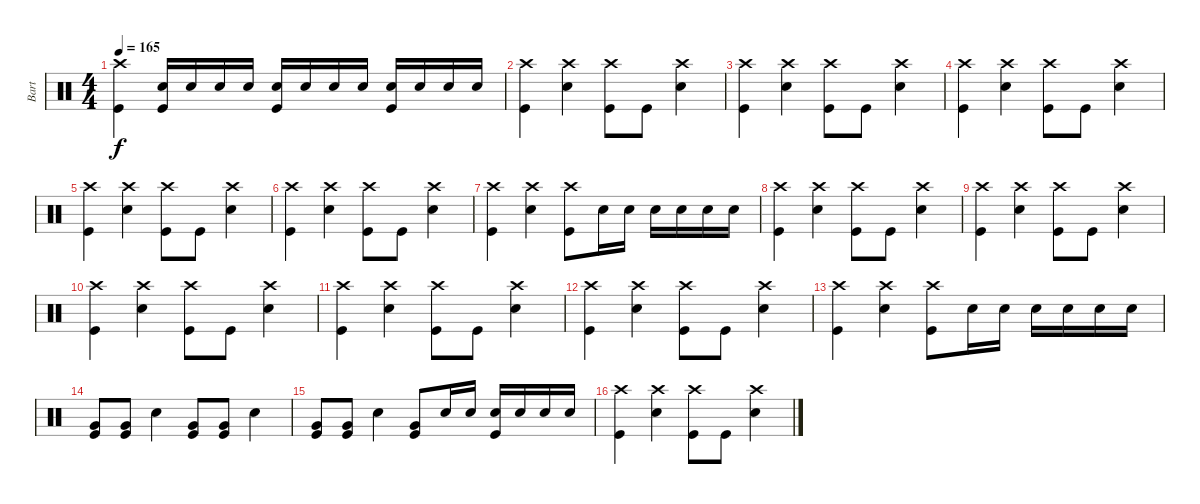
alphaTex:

\track ("Bart" "Bart") {instrument percussion}
\staff {score}
\articulation defaults
\ts (4 4)
\tempo 165
\clef neutral
\ks c
("Kick (hit)" "Crash high (hit)").4{dy f} ("Kick (hit)" "Electric Snare (hit)").16 "Electric Snare (hit)".16 "Electric Snare (hit)".16 "Electric Snare (hit)".16 ("Kick (hit)" "Electric Snare (hit)").16 "Electric Snare (hit)".16 "Electric Snare (hit)".16 "Electric Snare (hit)".16 ("Kick (hit)" "Electric Snare (hit)").16 "Electric Snare (hit)".16 "Electric Snare (hit)".16 "Electric Snare (hit)".16 |
("Kick (hit)" "Crash high (hit)").4 ("Electric Snare (hit)" "Crash high (hit)").4 ("Kick (hit)" "Crash high (hit)").8 "Kick (hit)".8 ("Electric Snare (hit)" "Crash high (hit)").4 |
("Kick (hit)" "Crash high (hit)").4 ("Electric Snare (hit)" "Crash high (hit)").4 ("Kick (hit)" "Crash high (hit)").8 "Kick (hit)".8 ("Electric Snare (hit)" "Crash high (hit)").4 |
("Kick (hit)" "Crash high (hit)").4 ("Electric Snare (hit)" "Crash high (hit)").4 ("Kick (hit)" "Crash high (hit)").8 "Kick (hit)".8 ("Electric Snare (hit)" "Crash high (hit)").4 |
("Kick (hit)" "Crash high (hit)").4 ("Electric Snare (hit)" "Crash high (hit)").4 ("Kick (hit)" "Crash high (hit)").8 "Kick (hit)".8 ("Electric Snare (hit)" "Crash high (hit)").4 |
("Kick (hit)" "Crash high (hit)").4 ("Electric Snare (hit)" "Crash high (hit)").4 ("Kick (hit)" "Crash high (hit)").8 "Kick (hit)".8 ("Electric Snare (hit)" "Crash high (hit)").4 |
("Kick (hit)" "Crash high (hit)").4 ("Electric Snare (hit)" "Crash high (hit)").4 ("Kick (hit)" "Crash high (hit)").8 "Electric Snare (hit)".16 "Electric Snare (hit)".16 "Electric Snare (hit)".16 "Electric Snare (hit)".16 "Electric Snare (hit)".16 "Electric Snare (hit)".16 |
("Kick (hit)" "Crash high (hit)").4 ("Electric Snare (hit)" "Crash high (hit)").4 ("Kick (hit)" "Crash high (hit)").8 "Kick (hit)".8 ("Electric Snare (hit)" "Crash high (hit)").4 |
("Kick (hit)" "Crash high (hit)").4 ("Electric Snare (hit)" "Crash high (hit)").4 ("Kick (hit)" "Crash high (hit)").8 "Kick (hit)".8 ("Electric Snare (hit)" "Crash high (hit)").4 |
("Kick (hit)" "Crash high (hit)").4 ("Electric Snare (hit)" "Crash high (hit)").4 ("Kick (hit)" "Crash high (hit)").8 "Kick (hit)".8 ("Electric Snare (hit)" "Crash high (hit)").4 |
("Kick (hit)" "Crash high (hit)").4 ("Electric Snare (hit)" "Crash high (hit)").4 ("Kick (hit)" "Crash high (hit)").8 "Kick (hit)".8 ("Electric Snare (hit)" "Crash high (hit)").4 |
("Kick (hit)" "Crash high (hit)").4 ("Electric Snare (hit)" "Crash high (hit)").4 ("Kick (hit)" "Crash high (hit)").8 "Kick (hit)".8 ("Electric Snare (hit)" "Crash high (hit)").4 |
("Kick (hit)" "Crash high (hit)").4 ("Electric Snare (hit)" "Crash high (hit)").4 ("Kick (hit)" "Crash high (hit)").8 "Electric Snare (hit)".16 "Electric Snare (hit)".16 "Electric Snare (hit)".16 "Electric Snare (hit)".16 "Electric Snare (hit)".16 "Electric Snare (hit)".16 |
("Kick (hit)" "Very Low Tom (hit)").8 ("Kick (hit)" "Very Low Tom (hit)").8 "Electric Snare (hit)".4 ("Kick (hit)" "Very Low Tom (hit)").8 ("Kick (hit)" "Very Low Tom (hit)").8 "Electric Snare (hit)".4 |
("Kick (hit)" "Very Low Tom (hit)").8 ("Kick (hit)" "Very Low Tom (hit)").8 "Electric Snare (hit)".4 ("Kick (hit)" "Very Low Tom (hit)").8 "Electric Snare (hit)".16 "Electric Snare (hit)".16 ("Kick (hit)" "Electric Snare (hit)").16 "Electric Snare (hit)".16 "Electric Snare (hit)".16 "Electric Snare (hit)".16 |
("Kick (hit)" "Crash high (hit)").4 ("Electric Snare (hit)" "Crash high (hit)").4 ("Kick (hit)" "Crash high (hit)").8 "Kick (hit)".8 ("Electric Snare (hit)" "Crash high (hit)").4
